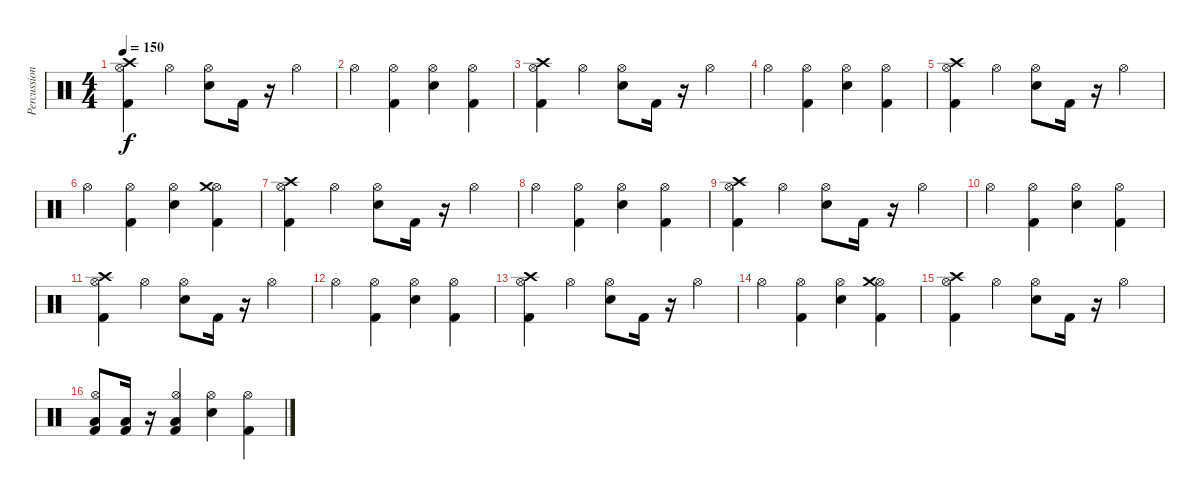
\track ("Percussion" "Percussion") {instrument percussion}
\staff {score}
\articulation defaults
\ts (4 4)
\tempo 150
\clef neutral
\ks c
("Kick (hit) 2" "Hi-Hat (open)" "Crash high (hit)").4{dy f} "Hi-Hat (open)".4 ("Electric Snare (hit)" "Hi-Hat (open)").8 "Kick (hit) 2".16 r.16 "Hi-Hat (open)".4 |
"Hi-Hat (open)".4 ("Kick (hit) 2" "Hi-Hat (open)").4 ("Electric Snare (hit)" "Hi-Hat (open)").4 ("Kick (hit) 2" "Hi-Hat (open)").4 |
("Kick (hit) 2" "Hi-Hat (open)" "Crash high (hit)").4 "Hi-Hat (open)".4 ("Electric Snare (hit)" "Hi-Hat (open)").8 "Kick (hit) 2".16 r.16 "Hi-Hat (open)".4 |
"Hi-Hat (open)".4 ("Kick (hit) 2" "Hi-Hat (open)").4 ("Electric Snare (hit)" "Hi-Hat (open)").4 ("Kick (hit) 2" "Hi-Hat (open)").4 |
("Kick (hit) 2" "Hi-Hat (open)" "Crash high (hit)").4 "Hi-Hat (open)".4 ("Electric Snare (hit)" "Hi-Hat (open)").8 "Kick (hit) 2".16 r.16 "Hi-Hat (open)".4 |
"Hi-Hat (open)".4 ("Kick (hit) 2" "Hi-Hat (open)").4 ("Electric Snare (hit)" "Hi-Hat (open)").4 ("Kick (hit) 2" "Hi-Hat (open)" "Crash medium (hit)").4 |
("Kick (hit) 2" "Hi-Hat (open)" "Crash high (hit)").4 "Hi-Hat (open)".4 ("Electric Snare (hit)" "Hi-Hat (open)").8 "Kick (hit) 2".16 r.16 "Hi-Hat (open)".4 |
"Hi-Hat (open)".4 ("Kick (hit) 2" "Hi-Hat (open)").4 ("Electric Snare (hit)" "Hi-Hat (open)").4 ("Kick (hit) 2" "Hi-Hat (open)").4 |
("Kick (hit) 2" "Hi-Hat (open)" "Crash high (hit)").4 "Hi-Hat (open)".4 ("Electric Snare (hit)" "Hi-Hat (open)").8 "Kick (hit) 2".16 r.16 "Hi-Hat (open)".4 |
"Hi-Hat (open)".4 ("Kick (hit) 2" "Hi-Hat (open)").4 ("Electric Snare (hit)" "Hi-Hat (open)").4 ("Kick (hit) 2" "Hi-Hat (open)").4 |
("Kick (hit) 2" "Hi-Hat (open)" "Crash high (hit)").4 "Hi-Hat (open)".4 ("Electric Snare (hit)" "Hi-Hat (open)").8 "Kick (hit) 2".16 r.16 "Hi-Hat (open)".4 |
"Hi-Hat (open)".4 ("Kick (hit) 2" "Hi-Hat (open)").4 ("Electric Snare (hit)" "Hi-Hat (open)").4 ("Kick (hit) 2" "Hi-Hat (open)").4 |
("Kick (hit) 2" "Hi-Hat (open)" "Crash high (hit)").4 "Hi-Hat (open)".4 ("Electric Snare (hit)" "Hi-Hat (open)").8 "Kick (hit) 2".16 r.16 "Hi-Hat (open)".4 |
"Hi-Hat (open)".4 ("Kick (hit) 2" "Hi-Hat (open)").4 ("Electric Snare (hit)" "Hi-Hat (open)").4 ("Kick (hit) 2" "Hi-Hat (open)" "Crash medium (hit)").4 |
("Kick (hit) 2" "Hi-Hat (open)" "Crash high (hit)").4 "Hi-Hat (open)".4 ("Electric Snare (hit)" "Hi-Hat (open)").8 "Kick (hit) 2".16 r.16 "Hi-Hat (open)".4 |
("Kick (hit) 2" "Low Floor Tom (hit)" "Hi-Hat (open)").8 ("Kick (hit) 2" "Low Floor Tom (hit)").16 r.16 ("Kick (hit) 2" "Low Floor Tom (hit)" "Hi-Hat (open)").4 ("Electric Snare (hit)" "Hi-Hat (open)").4 ("Kick (hit) 2" "Hi-Hat (open)").4
